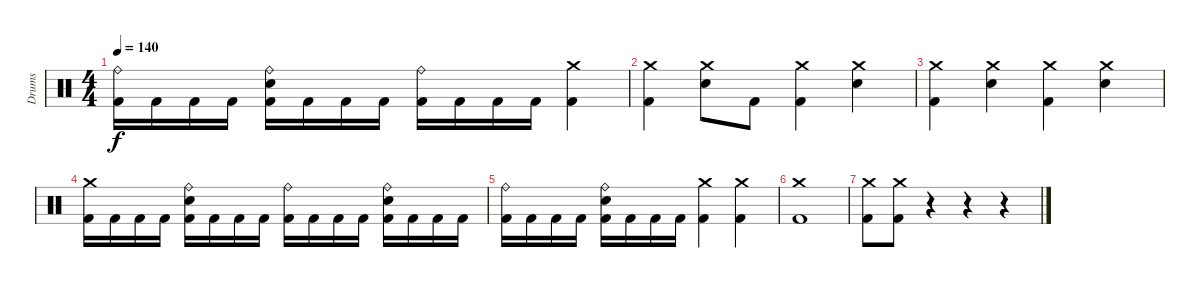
\track ("Drums" "Drums") {instrument percussion}
\staff
\articulation defaults
\ts (4 4)
\tempo 140
\clef neutral
\ks c
("Ride (bell)" "Kick (hit) 2").16{dy f} "Kick (hit) 2".16 "Kick (hit) 2".16 "Kick (hit) 2".16 ("Ride (bell)" "Electric Snare (hit)" "Kick (hit) 2").16 "Kick (hit) 2".16 "Kick (hit) 2".16 "Kick (hit) 2".16 ("Ride (bell)" "Kick (hit) 2").16 "Kick (hit) 2".16 "Kick (hit) 2".16 "Kick (hit) 2".16 ("Crash medium (hit)" "Kick (hit) 2").4 |
("Crash medium (hit)" "Kick (hit) 2").4 ("Crash medium (hit)" "Electric Snare (hit)").8 "Kick (hit) 2".8 ("Crash medium (hit)" "Kick (hit) 2").4 ("Crash medium (hit)" "Electric Snare (hit)").4 |
("Crash medium (hit)" "Kick (hit) 2").4 ("Crash medium (hit)" "Electric Snare (hit)").4 ("Crash medium (hit)" "Kick (hit) 2").4 ("Crash medium (hit)" "Electric Snare (hit)").4 |
("Crash medium (hit)" "Kick (hit) 2").16 "Kick (hit) 2".16 "Kick (hit) 2".16 "Kick (hit) 2".16 ("Ride (bell)" "Electric Snare (hit)" "Kick (hit) 2").16 "Kick (hit) 2".16 "Kick (hit) 2".16 "Kick (hit) 2".16 ("Ride (bell)" "Kick (hit) 2").16 "Kick (hit) 2".16 "Kick (hit) 2".16 "Kick (hit) 2".16 ("Ride (bell)" "Electric Snare (hit)" "Kick (hit) 2").16 "Kick (hit) 2".16 "Kick (hit) 2".16 "Kick (hit) 2".16 |
("Ride (bell)" "Kick (hit) 2").16 "Kick (hit) 2".16 "Kick (hit) 2".16 "Kick (hit) 2".16 ("Ride (bell)" "Electric Snare (hit)" "Kick (hit) 2").16 "Kick (hit) 2".16 "Kick (hit) 2".16 "Kick (hit) 2".16 ("Crash medium (hit)" "Kick (hit) 2").4 ("Crash medium (hit)" "Kick (hit) 2").4 |
("Crash medium (hit)" "Kick (hit) 2").1 |
("Crash medium (hit)" "Kick (hit) 2").8 ("Crash medium (hit)" "Kick (hit) 2").8 r.4 r.4 r.4
